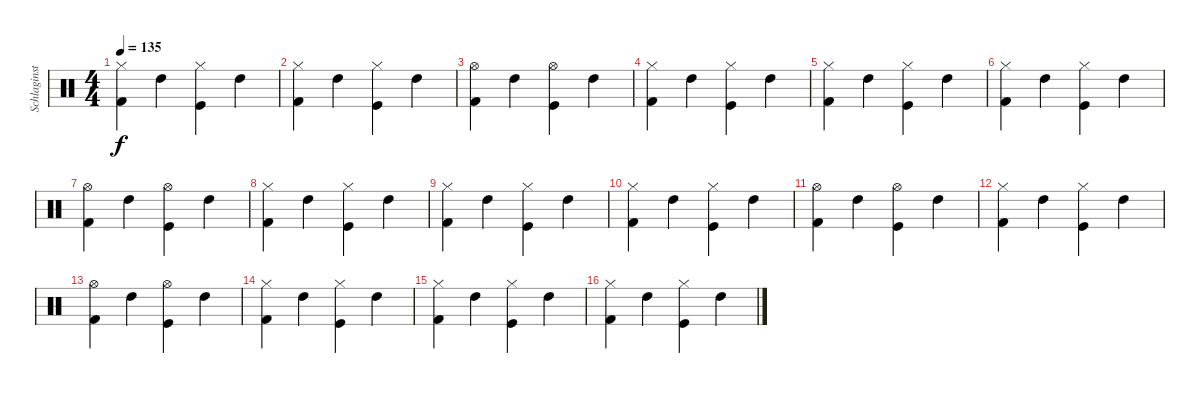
\track ("Schlaginstrumente - Auswahl" "Schlaginst") {instrument percussion}
\staff {score}
\articulation defaults
\ts (4 4)
\tempo 135
\clef neutral
\ks c
("Kick (hit) 2" "Hi-Hat (closed)").4{dy f} "High Tom (hit)".4 ("Kick (hit)" "Hi-Hat (closed)").4 "High Tom (hit)".4 |
("Kick (hit) 2" "Hi-Hat (closed)").4 "High Tom (hit)".4 ("Kick (hit)" "Hi-Hat (closed)").4 "High Tom (hit)".4 |
("Kick (hit) 2" "Hi-Hat (open)").4 "High Tom (hit)".4 ("Kick (hit)" "Hi-Hat (open)").4 "High Tom (hit)".4 |
("Kick (hit) 2" "Hi-Hat (closed)").4 "High Tom (hit)".4 ("Kick (hit)" "Hi-Hat (closed)").4 "High Tom (hit)".4 |
("Kick (hit) 2" "Hi-Hat (closed)").4 "High Tom (hit)".4 ("Kick (hit)" "Hi-Hat (closed)").4 "High Tom (hit)".4 |
("Kick (hit) 2" "Hi-Hat (closed)").4 "High Tom (hit)".4 ("Kick (hit)" "Hi-Hat (closed)").4 "High Tom (hit)".4 |
("Kick (hit) 2" "Hi-Hat (open)").4 "High Tom (hit)".4 ("Kick (hit)" "Hi-Hat (open)").4 "High Tom (hit)".4 |
("Kick (hit) 2" "Hi-Hat (closed)").4 "High Tom (hit)".4 ("Kick (hit)" "Hi-Hat (closed)").4 "High Tom (hit)".4 |
("Kick (hit) 2" "Hi-Hat (closed)").4 "High Tom (hit)".4 ("Kick (hit)" "Hi-Hat (closed)").4 "High Tom (hit)".4 |
("Kick (hit) 2" "Hi-Hat (closed)").4 "High Tom (hit)".4 ("Kick (hit)" "Hi-Hat (closed)").4 "High Tom (hit)".4 |
("Kick (hit) 2" "Hi-Hat (open)").4 "High Tom (hit)".4 ("Kick (hit)" "Hi-Hat (open)").4 "High Tom (hit)".4 |
("Kick (hit) 2" "Hi-Hat (closed)").4 "High Tom (hit)".4 ("Kick (hit)" "Hi-Hat (closed)").4 "High Tom (hit)".4 |
("Kick (hit) 2" "Hi-Hat (open)").4 "High Tom (hit)".4 ("Kick (hit)" "Hi-Hat (open)").4 "High Tom (hit)".4 |
("Kick (hit) 2" "Hi-Hat (closed)").4 "High Tom (hit)".4 ("Kick (hit)" "Hi-Hat (closed)").4 "High Tom (hit)".4 |
("Kick (hit) 2" "Hi-Hat (closed)").4 "High Tom (hit)".4 ("Kick (hit)" "Hi-Hat (closed)").4 "High Tom (hit)".4 |
("Kick (hit) 2" "Hi-Hat (closed)").4 "High Tom (hit)".4 ("Kick (hit)" "Hi-Hat (closed)").4 "High Tom (hit)".4
